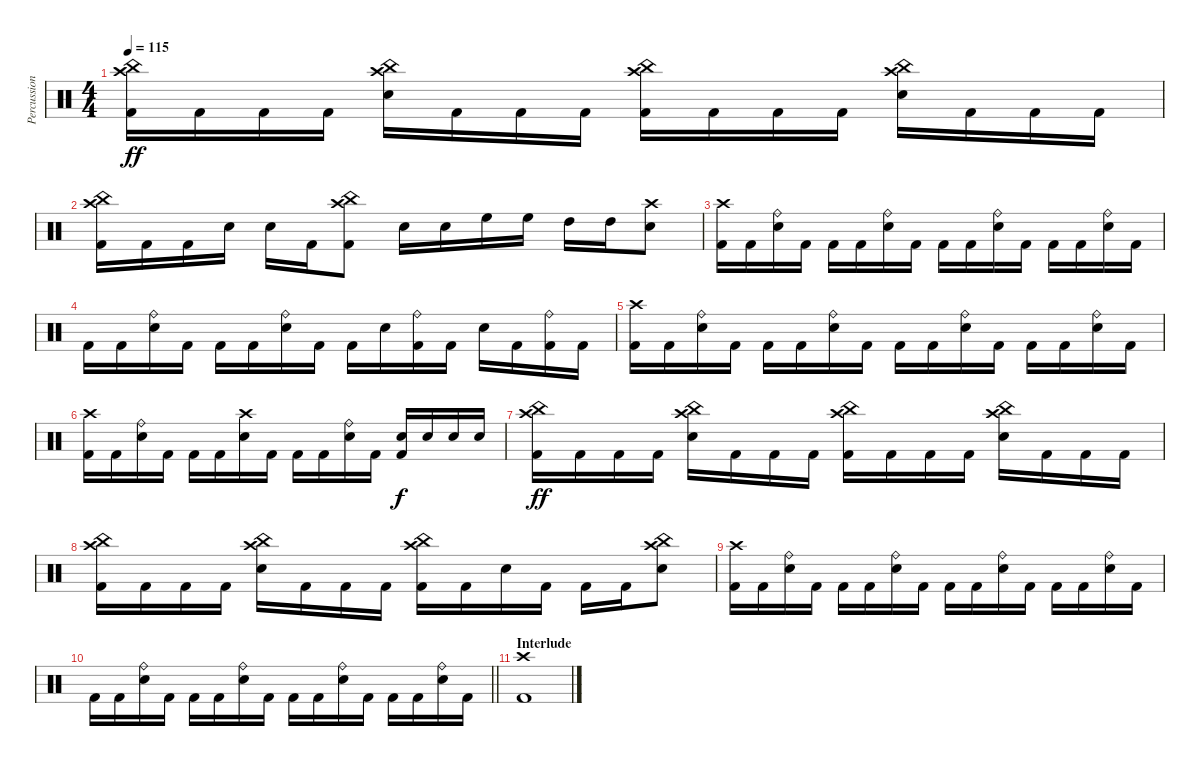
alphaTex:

\track ("Percussion" "Percussion") {instrument percussion}
\staff {score}
\articulation defaults
\ts (4 4)
\tempo 115
\clef neutral
\ks c
("Kick (hit) 2" "Crash high (hit)" "China (hit)").16{dy ff} "Kick (hit) 2".16 "Kick (hit) 2".16 "Kick (hit) 2".16 ("Electric Snare (hit)" "Crash high (hit)" "China (hit)").16 "Kick (hit) 2".16 "Kick (hit) 2".16 "Kick (hit) 2".16 ("Kick (hit) 2" "Crash high (hit)" "China (hit)").16 "Kick (hit) 2".16 "Kick (hit) 2".16 "Kick (hit) 2".16 ("Electric Snare (hit)" "Crash high (hit)" "China (hit)").16 "Kick (hit) 2".16 "Kick (hit) 2".16 "Kick (hit) 2".16 |
("Kick (hit) 2" "Crash high (hit)" "China (hit)").16 "Kick (hit) 2".16 "Kick (hit) 2".16 "Electric Snare (hit)".16 "Electric Snare (hit)".16 "Kick (hit) 2".16 ("Kick (hit) 2" "Crash high (hit)" "China (hit)").8 "Electric Snare (hit)".16 "Electric Snare (hit)".16 "High Floor Tom (hit)".16 "High Floor Tom (hit)".16 "High Tom (hit)".16 "High Tom (hit)".16 ("Electric Snare (hit)" "Crash high (hit)").8 |
("Kick (hit) 2" "Crash high (hit)").16 "Kick (hit) 2".16 ("Electric Snare (hit)" "Ride (bell)").16 "Kick (hit) 2".16 "Kick (hit) 2".16 "Kick (hit) 2".16 ("Electric Snare (hit)" "Ride (bell)").16 "Kick (hit) 2".16 "Kick (hit) 2".16 "Kick (hit) 2".16 ("Electric Snare (hit)" "Ride (bell)").16 "Kick (hit) 2".16 "Kick (hit) 2".16 "Kick (hit) 2".16 ("Electric Snare (hit)" "Ride (bell)").16 "Kick (hit) 2".16 |
"Kick (hit) 2".16 "Kick (hit) 2".16 ("Electric Snare (hit)" "Ride (bell)").16 "Kick (hit) 2".16 "Kick (hit) 2".16 "Kick (hit) 2".16 ("Electric Snare (hit)" "Ride (bell)").16 "Kick (hit) 2".16 "Kick (hit) 2".16 "Electric Snare (hit)".16 ("Kick (hit) 2" "Ride (bell)").16 "Kick (hit) 2".16 "Electric Snare (hit)".16 "Kick (hit) 2".16 ("Kick (hit) 2" "Ride (bell)").16 "Kick (hit) 2".16 |
("Kick (hit) 2" "Crash high (hit)").16 "Kick (hit) 2".16 ("Electric Snare (hit)" "Ride (bell)").16 "Kick (hit) 2".16 "Kick (hit) 2".16 "Kick (hit) 2".16 ("Electric Snare (hit)" "Ride (bell)").16 "Kick (hit) 2".16 "Kick (hit) 2".16 "Kick (hit) 2".16 ("Electric Snare (hit)" "Ride (bell)").16 "Kick (hit) 2".16 "Kick (hit) 2".16 "Kick (hit) 2".16 ("Electric Snare (hit)" "Ride (bell)").16 "Kick (hit) 2".16 |
("Kick (hit) 2" "Crash high (hit)").16 "Kick (hit) 2".16 ("Electric Snare (hit)" "Ride (bell)").16 "Kick (hit) 2".16 "Kick (hit) 2".16 "Kick (hit) 2".16 ("Electric Snare (hit)" "Crash high (hit)").16 "Kick (hit) 2".16 "Kick (hit) 2".16 "Kick (hit) 2".16 ("Electric Snare (hit)" "Ride (bell)").16 "Kick (hit) 2".16 ("Electric Snare (hit)" "Kick (hit) 2").16{dy f} "Electric Snare (hit)".16 "Electric Snare (hit)".16 "Electric Snare (hit)".16 |
("Kick (hit) 2" "Crash high (hit)" "China (hit)").16{dy ff} "Kick (hit) 2".16 "Kick (hit) 2".16 "Kick (hit) 2".16 ("Electric Snare (hit)" "Crash high (hit)" "China (hit)").16 "Kick (hit) 2".16 "Kick (hit) 2".16 "Kick (hit) 2".16 ("Kick (hit) 2" "Crash high (hit)" "China (hit)").16 "Kick (hit) 2".16 "Kick (hit) 2".16 "Kick (hit) 2".16 ("Electric Snare (hit)" "Crash high (hit)" "China (hit)").16 "Kick (hit) 2".16 "Kick (hit) 2".16 "Kick (hit) 2".16 |
("Kick (hit) 2" "Crash high (hit)" "China (hit)").16 "Kick (hit) 2".16 "Kick (hit) 2".16 "Kick (hit) 2".16 ("Electric Snare (hit)" "Crash high (hit)" "China (hit)").16 "Kick (hit) 2".16 "Kick (hit) 2".16 "Kick (hit) 2".16 ("Kick (hit) 2" "Crash high (hit)" "China (hit)").16 "Kick (hit) 2".16 "Electric Snare (hit)".16 "Kick (hit) 2".16 "Kick (hit) 2".16 "Kick (hit) 2".16 ("Electric Snare (hit)" "Crash high (hit)" "China (hit)").8 |
("Kick (hit) 2" "Crash high (hit)").16 "Kick (hit) 2".16 ("Electric Snare (hit)" "Ride (bell)").16 "Kick (hit) 2".16 "Kick (hit) 2".16 "Kick (hit) 2".16 ("Electric Snare (hit)" "Ride (bell)").16 "Kick (hit) 2".16 "Kick (hit) 2".16 "Kick (hit) 2".16 ("Electric Snare (hit)" "Ride (bell)").16 "Kick (hit) 2".16 "Kick (hit) 2".16 "Kick (hit) 2".16 ("Electric Snare (hit)" "Ride (bell)").16 "Kick (hit) 2".16 |
\barLineRight lightlight "Kick (hit) 2".16 "Kick (hit) 2".16
("Electric Snare (hit)" "Ride (bell)").16 "Kick (hit) 2".16 "Kick (hit) 2".16 "Kick (hit) 2".16 ("Electric Snare (hit)" "Ride (bell)").16 "Kick (hit) 2".16 "Kick (hit) 2".16 "Kick (hit) 2".16 ("Electric Snare (hit)" "Ride (bell)").16 "Kick (hit) 2".16 "Kick (hit) 2".16 "Kick (hit) 2".16 ("Electric Snare (hit)" "Ride (bell)").16 "Kick (hit) 2".16 |
\section ("" "Interlude")
("Kick (hit) 2" "Crash high (hit)").1
